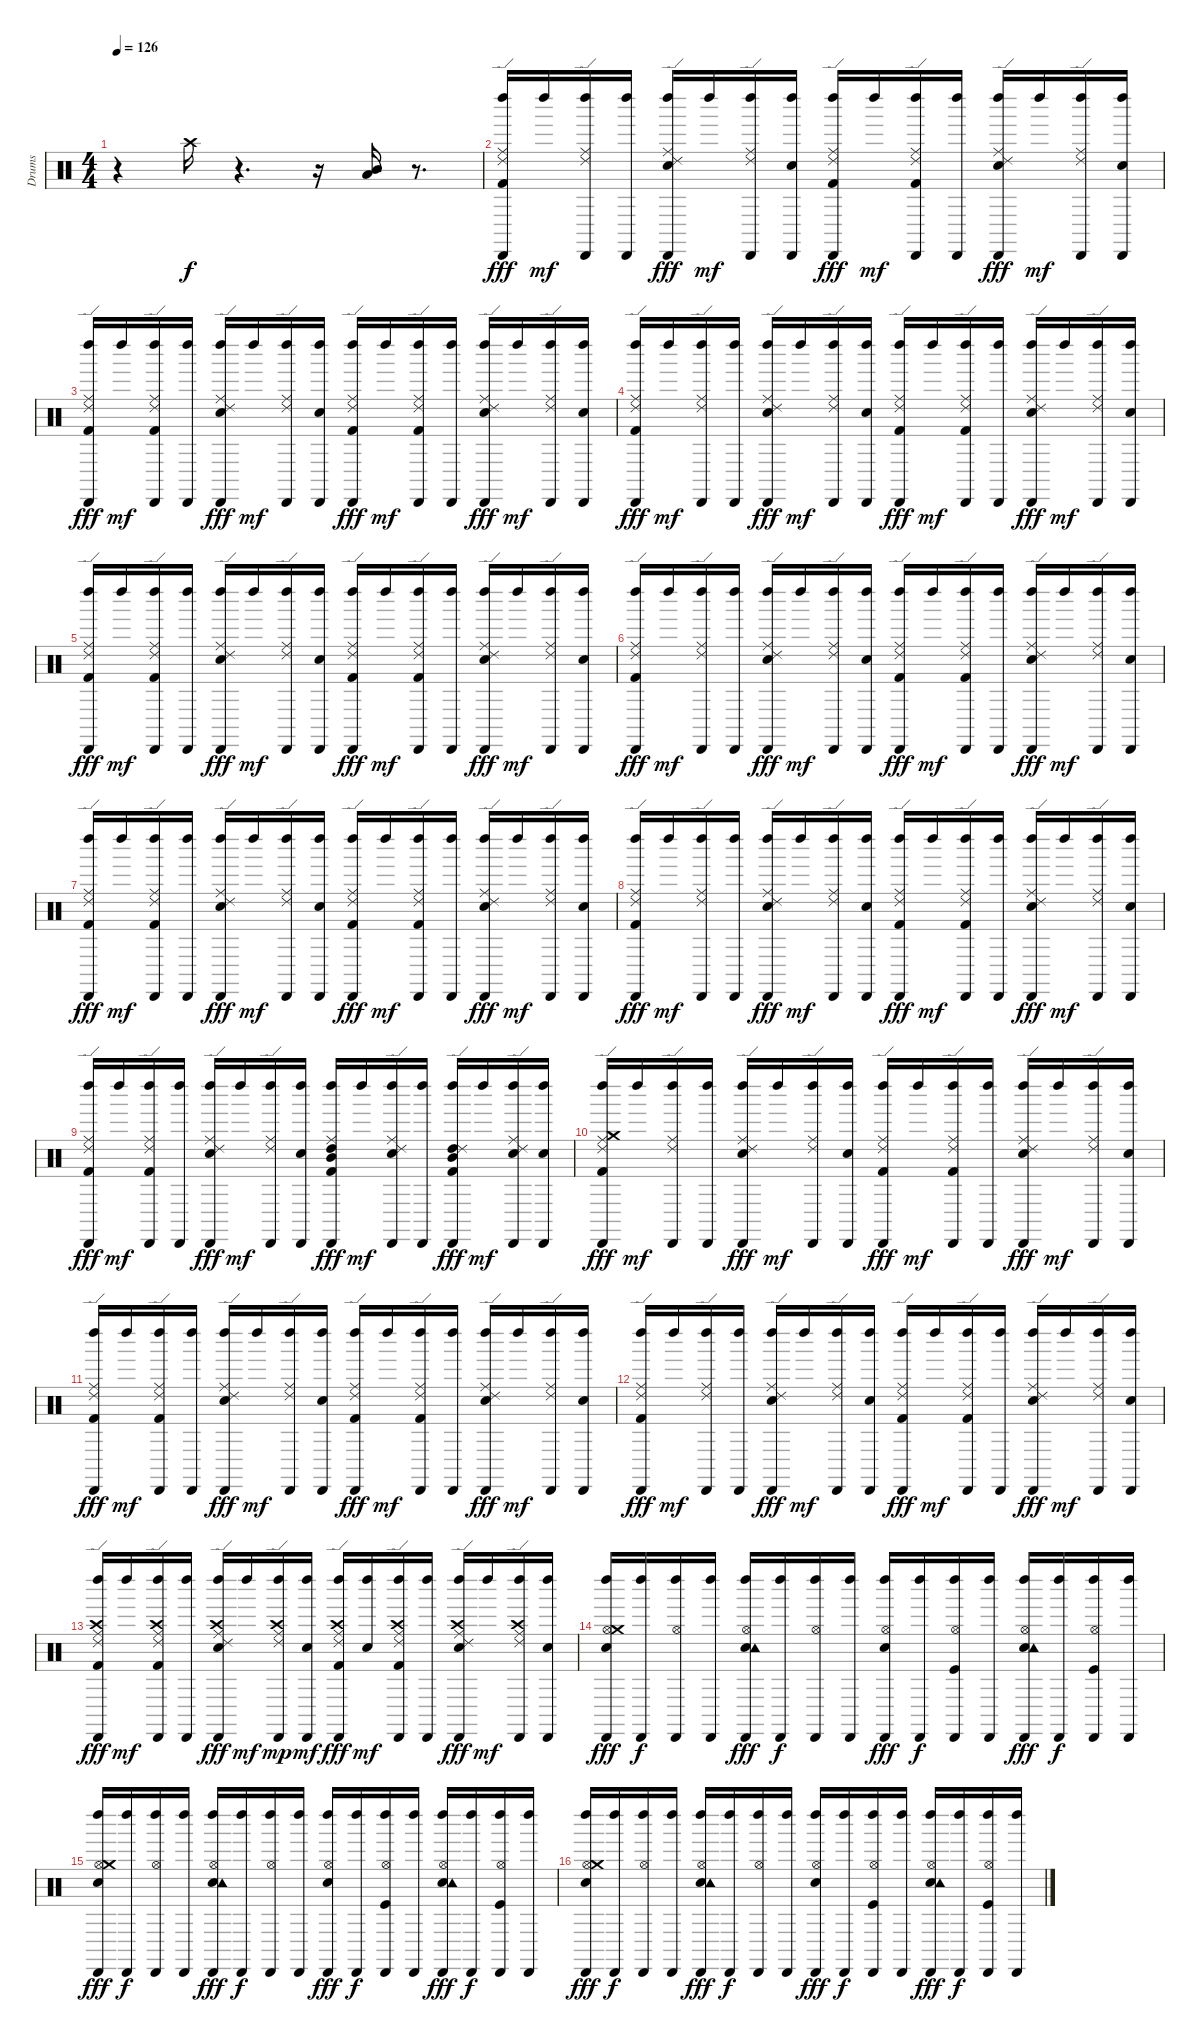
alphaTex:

\track ("Drums" "Drums") {instrument percussion}
\staff {score}
\articulation defaults
\ts (4 4)
\tempo 126
\clef neutral
\ks c
r.4{dy mf} "Crash high (hit)".16{dy f} r.4{d} r.16 ("Low Tom (hit)" "Mid Tom (hit)").16 r.8{d} |
("Cabasa (hit)" "Kick (hit) 2" "Left Maraca (hit)" "Ride (middle)" "Ride (edge) 2").16{dy fff} "Left Maraca (hit)".16{dy mf} ("Cabasa (hit)" "Left Maraca (hit)" "Ride (edge) 2" "Ride (middle)").16 ("Cabasa (hit)" "Left Maraca (hit)").16 ("Left Maraca (hit)" "Ride (edge) 2" "Ride (middle)" "Cabasa (hit)" "Electric Snare (hit)").16{dy fff} "Left Maraca (hit)".16{dy mf} ("Ride (edge) 2" "Cabasa (hit)" "Left Maraca (hit)" "Ride (middle)").16 ("Electric Snare (hit)" "Cabasa (hit)" "Left Maraca (hit)").16 ("Kick (hit) 2" "Cabasa (hit)" "Ride (middle)" "Left Maraca (hit)" "Ride (edge) 2").16{dy fff} "Left Maraca (hit)".16{dy mf} ("Cabasa (hit)" "Ride (middle)" "Ride (edge) 2" "Left Maraca (hit)" "Kick (hit) 2").16 ("Left Maraca (hit)" "Cabasa (hit)").16 ("Ride (edge) 2" "Electric Snare (hit)" "Left Maraca (hit)" "Cabasa (hit)" "Ride (middle)").16{dy fff} "Left Maraca (hit)".16{dy mf} ("Left Maraca (hit)" "Cabasa (hit)" "Ride (middle)" "Ride (edge) 2").16 ("Left Maraca (hit)" "Cabasa (hit)" "Electric Snare (hit)").16 |
("Cabasa (hit)" "Kick (hit) 2" "Left Maraca (hit)" "Ride (middle)" "Ride (edge) 2").16{dy fff} "Left Maraca (hit)".16{dy mf} ("Kick (hit) 2" "Cabasa (hit)" "Left Maraca (hit)" "Ride (edge) 2" "Ride (middle)").16 ("Cabasa (hit)" "Left Maraca (hit)").16 ("Left Maraca (hit)" "Ride (edge) 2" "Ride (middle)" "Cabasa (hit)" "Electric Snare (hit)").16{dy fff} "Left Maraca (hit)".16{dy mf} ("Ride (edge) 2" "Cabasa (hit)" "Left Maraca (hit)" "Ride (middle)").16 ("Electric Snare (hit)" "Cabasa (hit)" "Left Maraca (hit)").16 ("Kick (hit) 2" "Cabasa (hit)" "Ride (middle)" "Left Maraca (hit)" "Ride (edge) 2").16{dy fff} "Left Maraca (hit)".16{dy mf} ("Cabasa (hit)" "Ride (middle)" "Ride (edge) 2" "Left Maraca (hit)" "Kick (hit) 2").16 ("Left Maraca (hit)" "Cabasa (hit)").16 ("Ride (edge) 2" "Electric Snare (hit)" "Left Maraca (hit)" "Cabasa (hit)" "Ride (middle)").16{dy fff} "Left Maraca (hit)".16{dy mf} ("Left Maraca (hit)" "Cabasa (hit)" "Ride (middle)" "Ride (edge) 2").16 ("Left Maraca (hit)" "Cabasa (hit)" "Electric Snare (hit)").16 |
("Cabasa (hit)" "Kick (hit) 2" "Left Maraca (hit)" "Ride (middle)" "Ride (edge) 2").16{dy fff} "Left Maraca (hit)".16{dy mf} ("Cabasa (hit)" "Left Maraca (hit)" "Ride (edge) 2" "Ride (middle)").16 ("Cabasa (hit)" "Left Maraca (hit)").16 ("Left Maraca (hit)" "Ride (edge) 2" "Ride (middle)" "Cabasa (hit)" "Electric Snare (hit)").16{dy fff} "Left Maraca (hit)".16{dy mf} ("Ride (edge) 2" "Cabasa (hit)" "Left Maraca (hit)" "Ride (middle)").16 ("Electric Snare (hit)" "Cabasa (hit)" "Left Maraca (hit)").16 ("Kick (hit) 2" "Cabasa (hit)" "Ride (middle)" "Left Maraca (hit)" "Ride (edge) 2").16{dy fff} "Left Maraca (hit)".16{dy mf} ("Cabasa (hit)" "Ride (middle)" "Ride (edge) 2" "Left Maraca (hit)" "Kick (hit) 2").16 ("Left Maraca (hit)" "Cabasa (hit)").16 ("Ride (edge) 2" "Electric Snare (hit)" "Left Maraca (hit)" "Cabasa (hit)" "Ride (middle)").16{dy fff} "Left Maraca (hit)".16{dy mf} ("Left Maraca (hit)" "Cabasa (hit)" "Ride (middle)" "Ride (edge) 2").16 ("Left Maraca (hit)" "Cabasa (hit)" "Electric Snare (hit)").16 |
("Cabasa (hit)" "Kick (hit) 2" "Left Maraca (hit)" "Ride (middle)" "Ride (edge) 2").16{dy fff} "Left Maraca (hit)".16{dy mf} ("Kick (hit) 2" "Cabasa (hit)" "Left Maraca (hit)" "Ride (edge) 2" "Ride (middle)").16 ("Cabasa (hit)" "Left Maraca (hit)").16 ("Left Maraca (hit)" "Ride (edge) 2" "Ride (middle)" "Cabasa (hit)" "Electric Snare (hit)").16{dy fff} "Left Maraca (hit)".16{dy mf} ("Ride (edge) 2" "Cabasa (hit)" "Left Maraca (hit)" "Ride (middle)").16 ("Electric Snare (hit)" "Cabasa (hit)" "Left Maraca (hit)").16 ("Kick (hit) 2" "Cabasa (hit)" "Ride (middle)" "Left Maraca (hit)" "Ride (edge) 2").16{dy fff} "Left Maraca (hit)".16{dy mf} ("Cabasa (hit)" "Ride (middle)" "Ride (edge) 2" "Left Maraca (hit)" "Kick (hit) 2").16 ("Left Maraca (hit)" "Cabasa (hit)").16 ("Ride (edge) 2" "Electric Snare (hit)" "Left Maraca (hit)" "Cabasa (hit)" "Ride (middle)").16{dy fff} "Left Maraca (hit)".16{dy mf} ("Left Maraca (hit)" "Cabasa (hit)" "Ride (middle)" "Ride (edge) 2").16 ("Left Maraca (hit)" "Cabasa (hit)" "Electric Snare (hit)").16 |
("Cabasa (hit)" "Kick (hit) 2" "Left Maraca (hit)" "Ride (middle)" "Ride (edge) 2").16{dy fff} "Left Maraca (hit)".16{dy mf} ("Cabasa (hit)" "Left Maraca (hit)" "Ride (edge) 2" "Ride (middle)").16 ("Cabasa (hit)" "Left Maraca (hit)").16 ("Left Maraca (hit)" "Ride (edge) 2" "Ride (middle)" "Cabasa (hit)" "Electric Snare (hit)").16{dy fff} "Left Maraca (hit)".16{dy mf} ("Ride (edge) 2" "Cabasa (hit)" "Left Maraca (hit)" "Ride (middle)").16 ("Electric Snare (hit)" "Cabasa (hit)" "Left Maraca (hit)").16 ("Kick (hit) 2" "Cabasa (hit)" "Ride (middle)" "Left Maraca (hit)" "Ride (edge) 2").16{dy fff} "Left Maraca (hit)".16{dy mf} ("Cabasa (hit)" "Ride (middle)" "Ride (edge) 2" "Left Maraca (hit)" "Kick (hit) 2").16 ("Left Maraca (hit)" "Cabasa (hit)").16 ("Ride (edge) 2" "Electric Snare (hit)" "Left Maraca (hit)" "Cabasa (hit)" "Ride (middle)").16{dy fff} "Left Maraca (hit)".16{dy mf} ("Left Maraca (hit)" "Cabasa (hit)" "Ride (middle)" "Ride (edge) 2").16 ("Left Maraca (hit)" "Cabasa (hit)" "Electric Snare (hit)").16 |
("Cabasa (hit)" "Kick (hit) 2" "Left Maraca (hit)" "Ride (middle)" "Ride (edge) 2").16{dy fff} "Left Maraca (hit)".16{dy mf} ("Kick (hit) 2" "Cabasa (hit)" "Left Maraca (hit)" "Ride (edge) 2" "Ride (middle)").16 ("Cabasa (hit)" "Left Maraca (hit)").16 ("Left Maraca (hit)" "Ride (edge) 2" "Ride (middle)" "Cabasa (hit)" "Electric Snare (hit)").16{dy fff} "Left Maraca (hit)".16{dy mf} ("Ride (edge) 2" "Cabasa (hit)" "Left Maraca (hit)" "Ride (middle)").16 ("Electric Snare (hit)" "Cabasa (hit)" "Left Maraca (hit)").16 ("Kick (hit) 2" "Cabasa (hit)" "Ride (middle)" "Left Maraca (hit)" "Ride (edge) 2").16{dy fff} "Left Maraca (hit)".16{dy mf} ("Cabasa (hit)" "Ride (middle)" "Ride (edge) 2" "Left Maraca (hit)" "Kick (hit) 2").16 ("Left Maraca (hit)" "Cabasa (hit)").16 ("Ride (edge) 2" "Electric Snare (hit)" "Left Maraca (hit)" "Cabasa (hit)" "Ride (middle)").16{dy fff} "Left Maraca (hit)".16{dy mf} ("Left Maraca (hit)" "Cabasa (hit)" "Ride (middle)" "Ride (edge) 2").16 ("Left Maraca (hit)" "Cabasa (hit)" "Electric Snare (hit)").16 |
("Cabasa (hit)" "Kick (hit) 2" "Left Maraca (hit)" "Ride (middle)" "Ride (edge) 2").16{dy fff} "Left Maraca (hit)".16{dy mf} ("Cabasa (hit)" "Left Maraca (hit)" "Ride (edge) 2" "Ride (middle)").16 ("Cabasa (hit)" "Left Maraca (hit)").16 ("Left Maraca (hit)" "Ride (edge) 2" "Ride (middle)" "Cabasa (hit)" "Electric Snare (hit)").16{dy fff} "Left Maraca (hit)".16{dy mf} ("Ride (edge) 2" "Cabasa (hit)" "Left Maraca (hit)" "Ride (middle)").16 ("Electric Snare (hit)" "Cabasa (hit)" "Left Maraca (hit)").16 ("Kick (hit) 2" "Cabasa (hit)" "Ride (middle)" "Left Maraca (hit)" "Ride (edge) 2").16{dy fff} "Left Maraca (hit)".16{dy mf} ("Cabasa (hit)" "Ride (middle)" "Ride (edge) 2" "Left Maraca (hit)" "Kick (hit) 2").16 ("Left Maraca (hit)" "Cabasa (hit)").16 ("Ride (edge) 2" "Electric Snare (hit)" "Left Maraca (hit)" "Cabasa (hit)" "Ride (middle)").16{dy fff} "Left Maraca (hit)".16{dy mf} ("Left Maraca (hit)" "Cabasa (hit)" "Ride (middle)" "Ride (edge) 2").16 ("Left Maraca (hit)" "Cabasa (hit)" "Electric Snare (hit)").16 |
("Cabasa (hit)" "Kick (hit) 2" "Left Maraca (hit)" "Ride (middle)" "Ride (edge) 2").16{dy fff} "Left Maraca (hit)".16{dy mf} ("Kick (hit) 2" "Cabasa (hit)" "Left Maraca (hit)" "Ride (edge) 2" "Ride (middle)").16 ("Cabasa (hit)" "Left Maraca (hit)").16 ("Left Maraca (hit)" "Ride (edge) 2" "Ride (middle)" "Cabasa (hit)" "Electric Snare (hit)").16{dy fff} "Left Maraca (hit)".16{dy mf} ("Ride (edge) 2" "Cabasa (hit)" "Left Maraca (hit)" "Ride (middle)").16 ("Electric Snare (hit)" "Cabasa (hit)" "Left Maraca (hit)").16 ("Mid Tom (hit)" "High Tom (hit)" "Kick (hit) 2" "Cabasa (hit)" "Ride (middle)" "Left Maraca (hit)").16{dy fff} "Left Maraca (hit)".16{dy mf} ("Cabasa (hit)" "Ride (middle)" "Ride (edge) 2" "Left Maraca (hit)" "Electric Snare (hit)").16 ("Left Maraca (hit)" "Cabasa (hit)").16 ("High Tom (hit)" "Mid Tom (hit)" "Ride (edge) 2" "Kick (hit) 2" "Left Maraca (hit)" "Cabasa (hit)").16{dy fff} "Left Maraca (hit)".16{dy mf} ("Electric Snare (hit)" "Left Maraca (hit)" "Cabasa (hit)" "Ride (middle)" "Ride (edge) 2").16 ("Electric Snare (hit)" "Left Maraca (hit)" "Cabasa (hit)").16 |
("Crash medium (hit)" "Cabasa (hit)" "Kick (hit) 2" "Left Maraca (hit)" "Ride (middle)" "Ride (edge) 2").16{dy fff} "Left Maraca (hit)".16{dy mf} ("Cabasa (hit)" "Left Maraca (hit)" "Ride (edge) 2" "Ride (middle)").16 ("Cabasa (hit)" "Left Maraca (hit)").16 ("Left Maraca (hit)" "Ride (edge) 2" "Ride (middle)" "Cabasa (hit)" "Electric Snare (hit)").16{dy fff} "Left Maraca (hit)".16{dy mf} ("Ride (edge) 2" "Cabasa (hit)" "Left Maraca (hit)" "Ride (middle)").16 ("Electric Snare (hit)" "Cabasa (hit)" "Left Maraca (hit)").16 ("Kick (hit) 2" "Cabasa (hit)" "Ride (middle)" "Left Maraca (hit)" "Ride (edge) 2").16{dy fff} "Left Maraca (hit)".16{dy mf} ("Cabasa (hit)" "Ride (middle)" "Ride (edge) 2" "Left Maraca (hit)" "Kick (hit) 2").16 ("Left Maraca (hit)" "Cabasa (hit)").16 ("Ride (edge) 2" "Electric Snare (hit)" "Left Maraca (hit)" "Cabasa (hit)" "Ride (middle)").16{dy fff} "Left Maraca (hit)".16{dy mf} ("Left Maraca (hit)" "Cabasa (hit)" "Ride (middle)" "Ride (edge) 2").16 ("Left Maraca (hit)" "Cabasa (hit)" "Electric Snare (hit)").16 |
("Cabasa (hit)" "Kick (hit) 2" "Left Maraca (hit)" "Ride (middle)" "Ride (edge) 2").16{dy fff} "Left Maraca (hit)".16{dy mf} ("Kick (hit) 2" "Cabasa (hit)" "Left Maraca (hit)" "Ride (edge) 2" "Ride (middle)").16 ("Cabasa (hit)" "Left Maraca (hit)").16 ("Left Maraca (hit)" "Ride (edge) 2" "Ride (middle)" "Cabasa (hit)" "Electric Snare (hit)").16{dy fff} "Left Maraca (hit)".16{dy mf} ("Ride (edge) 2" "Cabasa (hit)" "Left Maraca (hit)" "Ride (middle)").16 ("Electric Snare (hit)" "Cabasa (hit)" "Left Maraca (hit)").16 ("Kick (hit) 2" "Cabasa (hit)" "Ride (middle)" "Left Maraca (hit)" "Ride (edge) 2").16{dy fff} "Left Maraca (hit)".16{dy mf} ("Cabasa (hit)" "Ride (middle)" "Ride (edge) 2" "Left Maraca (hit)" "Kick (hit) 2").16 ("Left Maraca (hit)" "Cabasa (hit)").16 ("Ride (edge) 2" "Electric Snare (hit)" "Left Maraca (hit)" "Cabasa (hit)" "Ride (middle)").16{dy fff} "Left Maraca (hit)".16{dy mf} ("Left Maraca (hit)" "Cabasa (hit)" "Ride (middle)" "Ride (edge) 2").16 ("Left Maraca (hit)" "Cabasa (hit)" "Electric Snare (hit)").16 |
("Cabasa (hit)" "Kick (hit) 2" "Left Maraca (hit)" "Ride (middle)" "Ride (edge) 2").16{dy fff} "Left Maraca (hit)".16{dy mf} ("Cabasa (hit)" "Left Maraca (hit)" "Ride (edge) 2" "Ride (middle)").16 ("Cabasa (hit)" "Left Maraca (hit)").16 ("Left Maraca (hit)" "Ride (edge) 2" "Ride (middle)" "Cabasa (hit)" "Electric Snare (hit)").16{dy fff} "Left Maraca (hit)".16{dy mf} ("Ride (edge) 2" "Cabasa (hit)" "Left Maraca (hit)" "Ride (middle)").16 ("Electric Snare (hit)" "Cabasa (hit)" "Left Maraca (hit)").16 ("Kick (hit) 2" "Cabasa (hit)" "Ride (middle)" "Left Maraca (hit)" "Ride (edge) 2").16{dy fff} "Left Maraca (hit)".16{dy mf} ("Cabasa (hit)" "Ride (middle)" "Ride (edge) 2" "Left Maraca (hit)" "Kick (hit) 2").16 ("Left Maraca (hit)" "Cabasa (hit)").16 ("Ride (edge) 2" "Electric Snare (hit)" "Left Maraca (hit)" "Cabasa (hit)" "Ride (middle)").16{dy fff} "Left Maraca (hit)".16{dy mf} ("Left Maraca (hit)" "Cabasa (hit)" "Ride (middle)" "Ride (edge) 2").16 ("Left Maraca (hit)" "Cabasa (hit)" "Electric Snare (hit)").16 |
("Crash high (hit)" "Cabasa (hit)" "Kick (hit) 2" "Left Maraca (hit)" "Ride (middle)" "Ride (edge) 2").16{dy fff} "Left Maraca (hit)".16{dy mf} ("Crash high (hit)" "Kick (hit) 2" "Cabasa (hit)" "Left Maraca (hit)" "Ride (edge) 2" "Ride (middle)").16 ("Cabasa (hit)" "Left Maraca (hit)").16 ("Crash high (hit)" "Left Maraca (hit)" "Ride (edge) 2" "Ride (middle)" "Cabasa (hit)" "Electric Snare (hit)").16{dy fff} "Left Maraca (hit)".16{dy mf} ("Ride (edge) 2" "Cabasa (hit)" "Left Maraca (hit)" "Ride (middle)" "Crash high (hit)").16{dy mp} ("Electric Snare (hit)" "Cabasa (hit)" "Left Maraca (hit)").16{dy mf} ("Crash high (hit)" "Kick (hit) 2" "Cabasa (hit)" "Ride (middle)" "Left Maraca (hit)" "Ride (edge) 2").16{dy fff} ("Electric Snare (hit)" "Left Maraca (hit)").16{dy mf} ("Crash high (hit)" "Cabasa (hit)" "Ride (middle)" "Ride (edge) 2" "Left Maraca (hit)" "Kick (hit) 2").16 ("Left Maraca (hit)" "Cabasa (hit)").16 ("Crash high (hit)" "Ride (edge) 2" "Electric Snare (hit)" "Left Maraca (hit)" "Cabasa (hit)" "Ride (middle)").16{dy fff} "Left Maraca (hit)".16{dy mf} ("Crash high (hit)" "Left Maraca (hit)" "Cabasa (hit)" "Ride (middle)" "Ride (edge) 2").16 ("Left Maraca (hit)" "Cabasa (hit)" "Electric Snare (hit)").16 |
("Electric Snare (hit)" "Left Maraca (hit)" "Hi-Hat (open)" "Crash medium (hit)" "Cabasa (hit)").16{dy fff} ("Cabasa (hit)" "Left Maraca (hit)").16{dy f} ("Left Maraca (hit)" "Hi-Hat (open)" "Cabasa (hit)").16 ("Left Maraca (hit)" "Cabasa (hit)").16 ("Electric Snare (hit)" "Tambourine (hit)" "Cabasa (hit)" "Hi-Hat (open)" "Left Maraca (hit)").16{dy fff} ("Left Maraca (hit)" "Cabasa (hit)").16{dy f} ("Left Maraca (hit)" "Cabasa (hit)" "Hi-Hat (open)").16 ("Left Maraca (hit)" "Cabasa (hit)").16 ("Electric Snare (hit)" "Cabasa (hit)" "Hi-Hat (open)" "Left Maraca (hit)").16{dy fff} ("Left Maraca (hit)" "Cabasa (hit)").16{dy f} ("Kick (hit)" "Left Maraca (hit)" "Cabasa (hit)" "Hi-Hat (open)").16 ("Left Maraca (hit)" "Cabasa (hit)").16 ("Electric Snare (hit)" "Left Maraca (hit)" "Hi-Hat (open)" "Cabasa (hit)" "Tambourine (hit)").16{dy fff} ("Left Maraca (hit)" "Cabasa (hit)").16{dy f} ("Kick (hit)" "Hi-Hat (open)" "Cabasa (hit)" "Left Maraca (hit)").16 ("Left Maraca (hit)" "Cabasa (hit)").16 |
("Electric Snare (hit)" "Left Maraca (hit)" "Hi-Hat (open)" "Crash medium (hit)" "Cabasa (hit)").16{dy fff} ("Cabasa (hit)" "Left Maraca (hit)").16{dy f} ("Left Maraca (hit)" "Hi-Hat (open)" "Cabasa (hit)").16 ("Left Maraca (hit)" "Cabasa (hit)").16 ("Electric Snare (hit)" "Tambourine (hit)" "Cabasa (hit)" "Hi-Hat (open)" "Left Maraca (hit)").16{dy fff} ("Left Maraca (hit)" "Cabasa (hit)").16{dy f} ("Left Maraca (hit)" "Cabasa (hit)" "Hi-Hat (open)").16 ("Left Maraca (hit)" "Cabasa (hit)").16 ("Electric Snare (hit)" "Cabasa (hit)" "Hi-Hat (open)" "Left Maraca (hit)").16{dy fff} ("Left Maraca (hit)" "Cabasa (hit)").16{dy f} ("Kick (hit)" "Left Maraca (hit)" "Cabasa (hit)" "Hi-Hat (open)").16 ("Left Maraca (hit)" "Cabasa (hit)").16 ("Electric Snare (hit)" "Left Maraca (hit)" "Hi-Hat (open)" "Cabasa (hit)" "Tambourine (hit)").16{dy fff} ("Left Maraca (hit)" "Cabasa (hit)").16{dy f} ("Kick (hit)" "Hi-Hat (open)" "Cabasa (hit)" "Left Maraca (hit)").16 ("Left Maraca (hit)" "Cabasa (hit)").16 |
("Electric Snare (hit)" "Left Maraca (hit)" "Hi-Hat (open)" "Crash medium (hit)" "Cabasa (hit)").16{dy fff} ("Cabasa (hit)" "Left Maraca (hit)").16{dy f} ("Left Maraca (hit)" "Hi-Hat (open)" "Cabasa (hit)").16 ("Left Maraca (hit)" "Cabasa (hit)").16 ("Electric Snare (hit)" "Tambourine (hit)" "Cabasa (hit)" "Hi-Hat (open)" "Left Maraca (hit)").16{dy fff} ("Left Maraca (hit)" "Cabasa (hit)").16{dy f} ("Left Maraca (hit)" "Cabasa (hit)" "Hi-Hat (open)").16 ("Left Maraca (hit)" "Cabasa (hit)").16 ("Electric Snare (hit)" "Cabasa (hit)" "Hi-Hat (open)" "Left Maraca (hit)").16{dy fff} ("Left Maraca (hit)" "Cabasa (hit)").16{dy f} ("Kick (hit)" "Left Maraca (hit)" "Cabasa (hit)" "Hi-Hat (open)").16 ("Left Maraca (hit)" "Cabasa (hit)").16 ("Electric Snare (hit)" "Left Maraca (hit)" "Hi-Hat (open)" "Cabasa (hit)" "Tambourine (hit)").16{dy fff} ("Left Maraca (hit)" "Cabasa (hit)").16{dy f} ("Kick (hit)" "Hi-Hat (open)" "Cabasa (hit)" "Left Maraca (hit)").16 ("Left Maraca (hit)" "Cabasa (hit)").16
